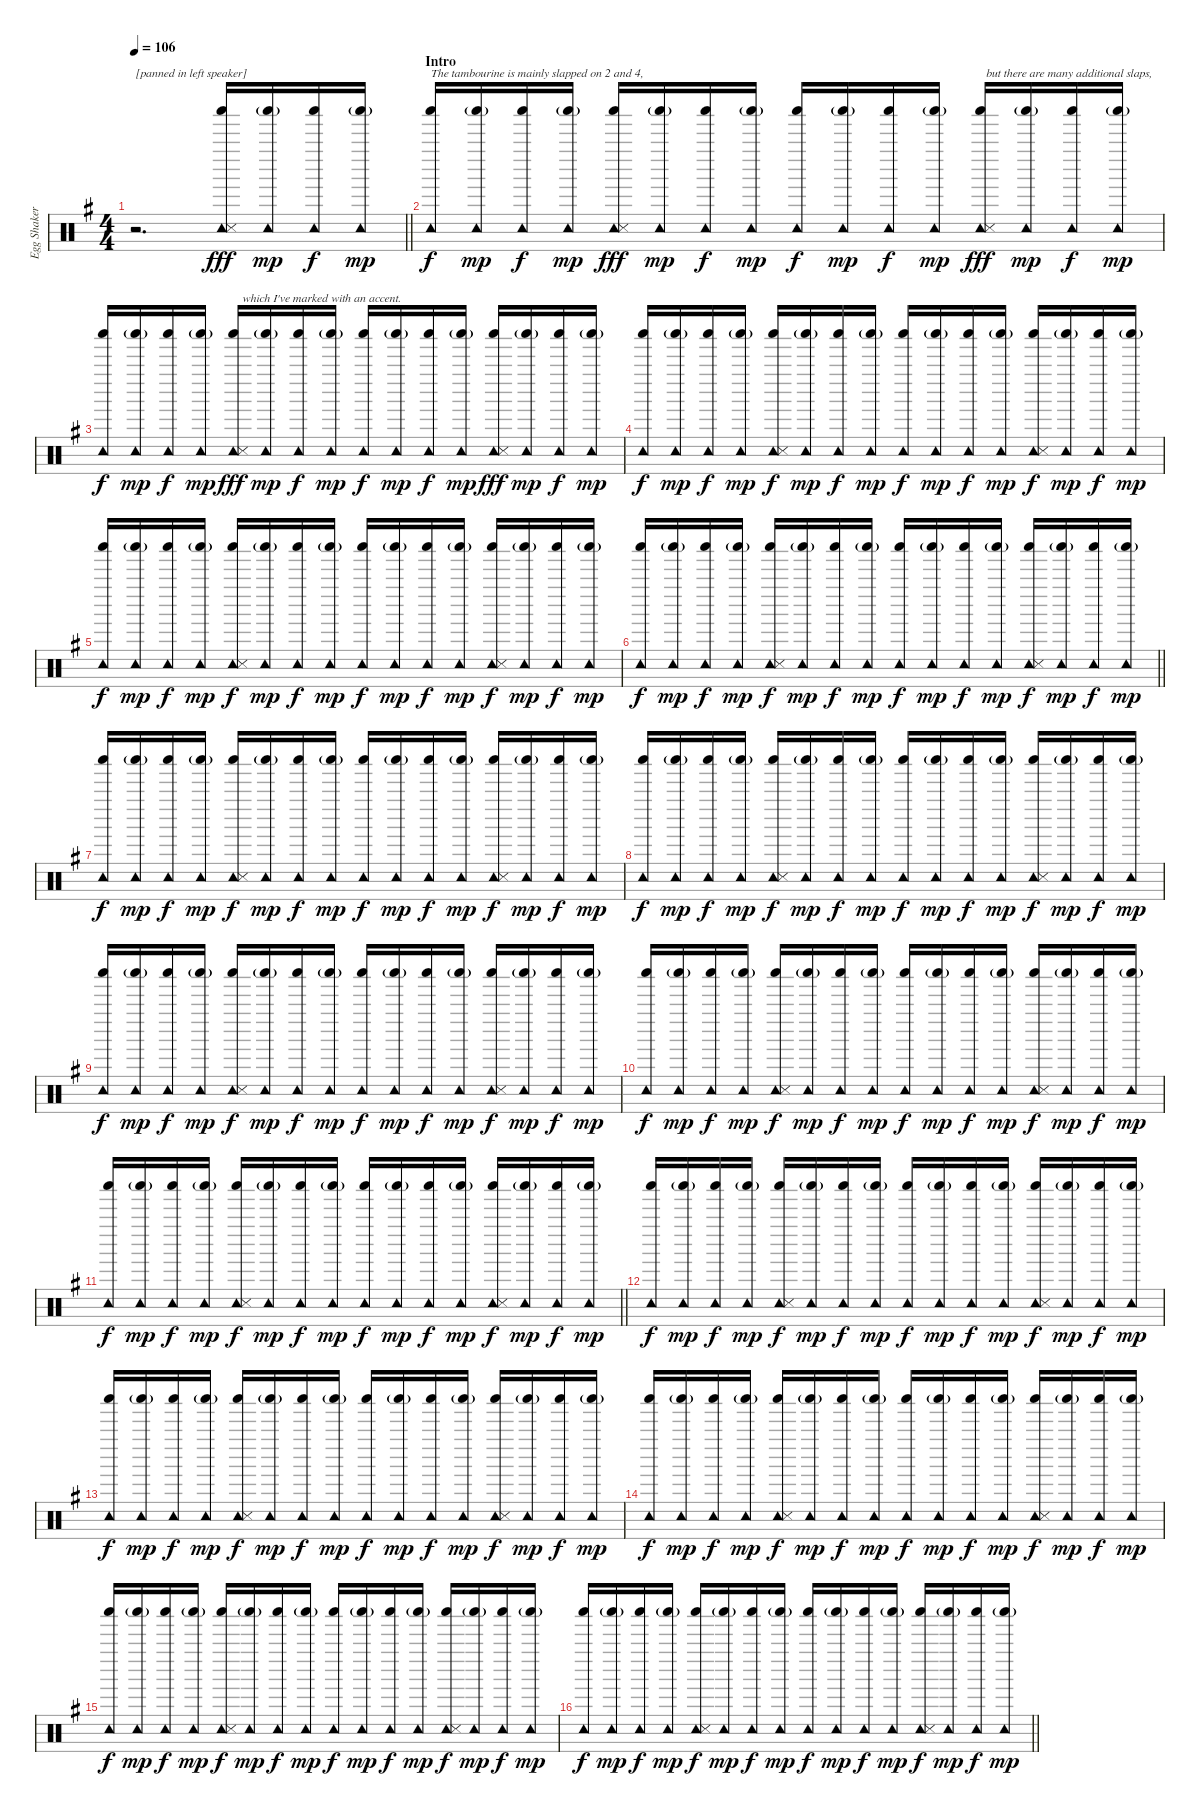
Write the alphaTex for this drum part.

\track ("Egg Shaker and Tambourine" "Egg Shaker") {instrument percussion}
\staff {score}
\articulation defaults
\ts (4 4)
\tempo 106
\clef neutral
\barLineRight lightlight
\ks eminor
r.2{d txt "[panned in left speaker]" dy fff} ("Tambourine (hit)" "Shaker (hit)" "Snare (side stick) 3").16{beam Up} ("Tambourine (hit)" "Shaker (hit)"{g}).16{dy mp beam Up} ("Tambourine (hit)" "Shaker (hit)").16{dy f beam Up} ("Tambourine (hit)" "Shaker (hit)"{g}).16{dy mp beam Up} |
\section ("" "Intro")
("Tambourine (hit)" "Shaker (hit)").16{txt "The tambourine is mainly slapped on 2 and 4," dy f beam Up} ("Tambourine (hit)" "Shaker (hit)"{g}).16{dy mp beam Up} ("Tambourine (hit)" "Shaker (hit)").16{dy f beam Up} ("Tambourine (hit)" "Shaker (hit)"{g}).16{dy mp beam Up} ("Tambourine (hit)" "Shaker (hit)" "Snare (side stick) 3").16{dy fff beam Up} ("Tambourine (hit)" "Shaker (hit)"{g}).16{dy mp beam Up} ("Tambourine (hit)" "Shaker (hit)").16{dy f beam Up} ("Tambourine (hit)" "Shaker (hit)"{g}).16{dy mp beam Up} ("Tambourine (hit)" "Shaker (hit)").16{dy f beam Up} ("Tambourine (hit)" "Shaker (hit)"{g}).16{dy mp beam Up} ("Tambourine (hit)" "Shaker (hit)").16{dy f beam Up} ("Tambourine (hit)" "Shaker (hit)"{g}).16{dy mp beam Up} ("Tambourine (hit)" "Shaker (hit)" "Snare (side stick) 3").16{txt "  but there are many additional slaps," dy fff beam Up} ("Tambourine (hit)" "Shaker (hit)"{g}).16{dy mp beam Up} ("Tambourine (hit)" "Shaker (hit)").16{dy f beam Up} ("Tambourine (hit)" "Shaker (hit)"{g}).16{dy mp beam Up} |
("Tambourine (hit)" "Shaker (hit)").16{dy f beam Up} ("Tambourine (hit)" "Shaker (hit)"{g}).16{dy mp beam Up} ("Tambourine (hit)" "Shaker (hit)").16{dy f beam Up} ("Tambourine (hit)" "Shaker (hit)"{g}).16{dy mp beam Up} ("Tambourine (hit)" "Shaker (hit)" "Snare (side stick) 3").16{txt "   which I've marked with an accent." dy fff beam Up} ("Tambourine (hit)" "Shaker (hit)"{g}).16{dy mp beam Up} ("Tambourine (hit)" "Shaker (hit)").16{dy f beam Up} ("Tambourine (hit)" "Shaker (hit)"{g}).16{dy mp beam Up} ("Tambourine (hit)" "Shaker (hit)").16{dy f beam Up} ("Tambourine (hit)" "Shaker (hit)"{g}).16{dy mp beam Up} ("Tambourine (hit)" "Shaker (hit)").16{dy f beam Up} ("Tambourine (hit)" "Shaker (hit)"{g}).16{dy mp beam Up} ("Tambourine (hit)" "Shaker (hit)" "Snare (side stick) 3").16{dy fff beam Up} ("Tambourine (hit)" "Shaker (hit)"{g}).16{dy mp beam Up} ("Tambourine (hit)" "Shaker (hit)").16{dy f beam Up} ("Tambourine (hit)" "Shaker (hit)"{g}).16{dy mp beam Up} |
("Tambourine (hit)" "Shaker (hit)").16{dy f beam Up} ("Tambourine (hit)" "Shaker (hit)"{g}).16{dy mp beam Up} ("Tambourine (hit)" "Shaker (hit)").16{dy f beam Up} ("Tambourine (hit)" "Shaker (hit)"{g}).16{dy mp beam Up} ("Tambourine (hit)" "Shaker (hit)" "Snare (side stick) 3").16{dy f beam Up} ("Tambourine (hit)" "Shaker (hit)"{g}).16{dy mp beam Up} ("Tambourine (hit)" "Shaker (hit)").16{dy f beam Up} ("Tambourine (hit)" "Shaker (hit)"{g}).16{dy mp beam Up} ("Tambourine (hit)" "Shaker (hit)").16{dy f beam Up} ("Tambourine (hit)" "Shaker (hit)"{g}).16{dy mp beam Up} ("Tambourine (hit)" "Shaker (hit)").16{dy f beam Up} ("Tambourine (hit)" "Shaker (hit)"{g}).16{dy mp beam Up} ("Tambourine (hit)" "Shaker (hit)" "Snare (side stick) 3").16{dy f beam Up} ("Tambourine (hit)" "Shaker (hit)"{g}).16{dy mp beam Up} ("Tambourine (hit)" "Shaker (hit)").16{dy f beam Up} ("Tambourine (hit)" "Shaker (hit)"{g}).16{dy mp beam Up} |
("Tambourine (hit)" "Shaker (hit)").16{dy f beam Up} ("Tambourine (hit)" "Shaker (hit)"{g}).16{dy mp beam Up} ("Tambourine (hit)" "Shaker (hit)").16{dy f beam Up} ("Tambourine (hit)" "Shaker (hit)"{g}).16{dy mp beam Up} ("Tambourine (hit)" "Shaker (hit)" "Snare (side stick) 3").16{dy f beam Up} ("Tambourine (hit)" "Shaker (hit)"{g}).16{dy mp beam Up} ("Tambourine (hit)" "Shaker (hit)").16{dy f beam Up} ("Tambourine (hit)" "Shaker (hit)"{g}).16{dy mp beam Up} ("Tambourine (hit)" "Shaker (hit)").16{dy f beam Up} ("Tambourine (hit)" "Shaker (hit)"{g}).16{dy mp beam Up} ("Tambourine (hit)" "Shaker (hit)").16{dy f beam Up} ("Tambourine (hit)" "Shaker (hit)"{g}).16{dy mp beam Up} ("Tambourine (hit)" "Shaker (hit)" "Snare (side stick) 3").16{dy f beam Up} ("Tambourine (hit)" "Shaker (hit)"{g}).16{dy mp beam Up} ("Tambourine (hit)" "Shaker (hit)").16{dy f beam Up} ("Tambourine (hit)" "Shaker (hit)"{g}).16{dy mp beam Up} |
\barLineRight lightlight
("Tambourine (hit)" "Shaker (hit)").16{dy f beam Up} ("Tambourine (hit)" "Shaker (hit)"{g}).16{dy mp beam Up} ("Tambourine (hit)" "Shaker (hit)").16{dy f beam Up} ("Tambourine (hit)" "Shaker (hit)"{g}).16{dy mp beam Up} ("Tambourine (hit)" "Shaker (hit)" "Snare (side stick) 3").16{dy f beam Up} ("Tambourine (hit)" "Shaker (hit)"{g}).16{dy mp beam Up} ("Tambourine (hit)" "Shaker (hit)").16{dy f beam Up} ("Tambourine (hit)" "Shaker (hit)"{g}).16{dy mp beam Up} ("Tambourine (hit)" "Shaker (hit)").16{dy f beam Up} ("Tambourine (hit)" "Shaker (hit)"{g}).16{dy mp beam Up} ("Tambourine (hit)" "Shaker (hit)").16{dy f beam Up} ("Tambourine (hit)" "Shaker (hit)"{g}).16{dy mp beam Up} ("Tambourine (hit)" "Shaker (hit)" "Snare (side stick) 3").16{dy f beam Up} ("Tambourine (hit)" "Shaker (hit)"{g}).16{dy mp beam Up} ("Tambourine (hit)" "Shaker (hit)").16{dy f beam Up} ("Tambourine (hit)" "Shaker (hit)"{g}).16{dy mp beam Up} |
("Tambourine (hit)" "Shaker (hit)").16{dy f beam Up} ("Tambourine (hit)" "Shaker (hit)"{g}).16{dy mp beam Up} ("Tambourine (hit)" "Shaker (hit)").16{dy f beam Up} ("Tambourine (hit)" "Shaker (hit)"{g}).16{dy mp beam Up} ("Tambourine (hit)" "Shaker (hit)" "Snare (side stick) 3").16{dy f beam Up} ("Tambourine (hit)" "Shaker (hit)"{g}).16{dy mp beam Up} ("Tambourine (hit)" "Shaker (hit)").16{dy f beam Up} ("Tambourine (hit)" "Shaker (hit)"{g}).16{dy mp beam Up} ("Tambourine (hit)" "Shaker (hit)").16{dy f beam Up} ("Tambourine (hit)" "Shaker (hit)"{g}).16{dy mp beam Up} ("Tambourine (hit)" "Shaker (hit)").16{dy f beam Up} ("Tambourine (hit)" "Shaker (hit)"{g}).16{dy mp beam Up} ("Tambourine (hit)" "Shaker (hit)" "Snare (side stick) 3").16{dy f beam Up} ("Tambourine (hit)" "Shaker (hit)"{g}).16{dy mp beam Up} ("Tambourine (hit)" "Shaker (hit)").16{dy f beam Up} ("Tambourine (hit)" "Shaker (hit)"{g}).16{dy mp beam Up} |
("Tambourine (hit)" "Shaker (hit)").16{dy f beam Up} ("Tambourine (hit)" "Shaker (hit)"{g}).16{dy mp beam Up} ("Tambourine (hit)" "Shaker (hit)").16{dy f beam Up} ("Tambourine (hit)" "Shaker (hit)"{g}).16{dy mp beam Up} ("Tambourine (hit)" "Shaker (hit)" "Snare (side stick) 3").16{dy f beam Up} ("Tambourine (hit)" "Shaker (hit)"{g}).16{dy mp beam Up} ("Tambourine (hit)" "Shaker (hit)").16{dy f beam Up} ("Tambourine (hit)" "Shaker (hit)"{g}).16{dy mp beam Up} ("Tambourine (hit)" "Shaker (hit)").16{dy f beam Up} ("Tambourine (hit)" "Shaker (hit)"{g}).16{dy mp beam Up} ("Tambourine (hit)" "Shaker (hit)").16{dy f beam Up} ("Tambourine (hit)" "Shaker (hit)"{g}).16{dy mp beam Up} ("Tambourine (hit)" "Shaker (hit)" "Snare (side stick) 3").16{dy f beam Up} ("Tambourine (hit)" "Shaker (hit)"{g}).16{dy mp beam Up} ("Tambourine (hit)" "Shaker (hit)").16{dy f beam Up} ("Tambourine (hit)" "Shaker (hit)"{g}).16{dy mp beam Up} |
("Tambourine (hit)" "Shaker (hit)").16{dy f beam Up} ("Tambourine (hit)" "Shaker (hit)"{g}).16{dy mp beam Up} ("Tambourine (hit)" "Shaker (hit)").16{dy f beam Up} ("Tambourine (hit)" "Shaker (hit)"{g}).16{dy mp beam Up} ("Tambourine (hit)" "Shaker (hit)" "Snare (side stick) 3").16{dy f beam Up} ("Tambourine (hit)" "Shaker (hit)"{g}).16{dy mp beam Up} ("Tambourine (hit)" "Shaker (hit)").16{dy f beam Up} ("Tambourine (hit)" "Shaker (hit)"{g}).16{dy mp beam Up} ("Tambourine (hit)" "Shaker (hit)").16{dy f beam Up} ("Tambourine (hit)" "Shaker (hit)"{g}).16{dy mp beam Up} ("Tambourine (hit)" "Shaker (hit)").16{dy f beam Up} ("Tambourine (hit)" "Shaker (hit)"{g}).16{dy mp beam Up} ("Tambourine (hit)" "Shaker (hit)" "Snare (side stick) 3").16{dy f beam Up} ("Tambourine (hit)" "Shaker (hit)"{g}).16{dy mp beam Up} ("Tambourine (hit)" "Shaker (hit)").16{dy f beam Up} ("Tambourine (hit)" "Shaker (hit)"{g}).16{dy mp beam Up} |
("Tambourine (hit)" "Shaker (hit)").16{dy f beam Up} ("Tambourine (hit)" "Shaker (hit)"{g}).16{dy mp beam Up} ("Tambourine (hit)" "Shaker (hit)").16{dy f beam Up} ("Tambourine (hit)" "Shaker (hit)"{g}).16{dy mp beam Up} ("Tambourine (hit)" "Shaker (hit)" "Snare (side stick) 3").16{dy f beam Up} ("Tambourine (hit)" "Shaker (hit)"{g}).16{dy mp beam Up} ("Tambourine (hit)" "Shaker (hit)").16{dy f beam Up} ("Tambourine (hit)" "Shaker (hit)"{g}).16{dy mp beam Up} ("Tambourine (hit)" "Shaker (hit)").16{dy f beam Up} ("Tambourine (hit)" "Shaker (hit)"{g}).16{dy mp beam Up} ("Tambourine (hit)" "Shaker (hit)").16{dy f beam Up} ("Tambourine (hit)" "Shaker (hit)"{g}).16{dy mp beam Up} ("Tambourine (hit)" "Shaker (hit)" "Snare (side stick) 3").16{dy f beam Up} ("Tambourine (hit)" "Shaker (hit)"{g}).16{dy mp beam Up} ("Tambourine (hit)" "Shaker (hit)").16{dy f beam Up} ("Tambourine (hit)" "Shaker (hit)"{g}).16{dy mp beam Up} |
\barLineRight lightlight
("Tambourine (hit)" "Shaker (hit)").16{dy f beam Up} ("Tambourine (hit)" "Shaker (hit)"{g}).16{dy mp beam Up} ("Tambourine (hit)" "Shaker (hit)").16{dy f beam Up} ("Tambourine (hit)" "Shaker (hit)"{g}).16{dy mp beam Up} ("Tambourine (hit)" "Shaker (hit)" "Snare (side stick) 3").16{dy f beam Up} ("Tambourine (hit)" "Shaker (hit)"{g}).16{dy mp beam Up} ("Tambourine (hit)" "Shaker (hit)").16{dy f beam Up} ("Tambourine (hit)" "Shaker (hit)"{g}).16{dy mp beam Up} ("Tambourine (hit)" "Shaker (hit)").16{dy f beam Up} ("Tambourine (hit)" "Shaker (hit)"{g}).16{dy mp beam Up} ("Tambourine (hit)" "Shaker (hit)").16{dy f beam Up} ("Tambourine (hit)" "Shaker (hit)"{g}).16{dy mp beam Up} ("Tambourine (hit)" "Shaker (hit)" "Snare (side stick) 3").16{dy f beam Up} ("Tambourine (hit)" "Shaker (hit)"{g}).16{dy mp beam Up} ("Tambourine (hit)" "Shaker (hit)").16{dy f beam Up} ("Tambourine (hit)" "Shaker (hit)"{g}).16{dy mp beam Up} |
("Tambourine (hit)" "Shaker (hit)").16{dy f beam Up} ("Tambourine (hit)" "Shaker (hit)"{g}).16{dy mp beam Up} ("Tambourine (hit)" "Shaker (hit)").16{dy f beam Up} ("Tambourine (hit)" "Shaker (hit)"{g}).16{dy mp beam Up} ("Tambourine (hit)" "Shaker (hit)" "Snare (side stick) 3").16{dy f beam Up} ("Tambourine (hit)" "Shaker (hit)"{g}).16{dy mp beam Up} ("Tambourine (hit)" "Shaker (hit)").16{dy f beam Up} ("Tambourine (hit)" "Shaker (hit)"{g}).16{dy mp beam Up} ("Tambourine (hit)" "Shaker (hit)").16{dy f beam Up} ("Tambourine (hit)" "Shaker (hit)"{g}).16{dy mp beam Up} ("Tambourine (hit)" "Shaker (hit)").16{dy f beam Up} ("Tambourine (hit)" "Shaker (hit)"{g}).16{dy mp beam Up} ("Tambourine (hit)" "Shaker (hit)" "Snare (side stick) 3").16{dy f beam Up} ("Tambourine (hit)" "Shaker (hit)"{g}).16{dy mp beam Up} ("Tambourine (hit)" "Shaker (hit)").16{dy f beam Up} ("Tambourine (hit)" "Shaker (hit)"{g}).16{dy mp beam Up} |
("Tambourine (hit)" "Shaker (hit)").16{dy f beam Up} ("Tambourine (hit)" "Shaker (hit)"{g}).16{dy mp beam Up} ("Tambourine (hit)" "Shaker (hit)").16{dy f beam Up} ("Tambourine (hit)" "Shaker (hit)"{g}).16{dy mp beam Up} ("Tambourine (hit)" "Shaker (hit)" "Snare (side stick) 3").16{dy f beam Up} ("Tambourine (hit)" "Shaker (hit)"{g}).16{dy mp beam Up} ("Tambourine (hit)" "Shaker (hit)").16{dy f beam Up} ("Tambourine (hit)" "Shaker (hit)"{g}).16{dy mp beam Up} ("Tambourine (hit)" "Shaker (hit)").16{dy f beam Up} ("Tambourine (hit)" "Shaker (hit)"{g}).16{dy mp beam Up} ("Tambourine (hit)" "Shaker (hit)").16{dy f beam Up} ("Tambourine (hit)" "Shaker (hit)"{g}).16{dy mp beam Up} ("Tambourine (hit)" "Shaker (hit)" "Snare (side stick) 3").16{dy f beam Up} ("Tambourine (hit)" "Shaker (hit)"{g}).16{dy mp beam Up} ("Tambourine (hit)" "Shaker (hit)").16{dy f beam Up} ("Tambourine (hit)" "Shaker (hit)"{g}).16{dy mp beam Up} |
("Tambourine (hit)" "Shaker (hit)").16{dy f beam Up} ("Tambourine (hit)" "Shaker (hit)"{g}).16{dy mp beam Up} ("Tambourine (hit)" "Shaker (hit)").16{dy f beam Up} ("Tambourine (hit)" "Shaker (hit)"{g}).16{dy mp beam Up} ("Tambourine (hit)" "Shaker (hit)" "Snare (side stick) 3").16{dy f beam Up} ("Tambourine (hit)" "Shaker (hit)"{g}).16{dy mp beam Up} ("Tambourine (hit)" "Shaker (hit)").16{dy f beam Up} ("Tambourine (hit)" "Shaker (hit)"{g}).16{dy mp beam Up} ("Tambourine (hit)" "Shaker (hit)").16{dy f beam Up} ("Tambourine (hit)" "Shaker (hit)"{g}).16{dy mp beam Up} ("Tambourine (hit)" "Shaker (hit)").16{dy f beam Up} ("Tambourine (hit)" "Shaker (hit)"{g}).16{dy mp beam Up} ("Tambourine (hit)" "Shaker (hit)" "Snare (side stick) 3").16{dy f beam Up} ("Tambourine (hit)" "Shaker (hit)"{g}).16{dy mp beam Up} ("Tambourine (hit)" "Shaker (hit)").16{dy f beam Up} ("Tambourine (hit)" "Shaker (hit)"{g}).16{dy mp beam Up} |
("Tambourine (hit)" "Shaker (hit)").16{dy f beam Up} ("Tambourine (hit)" "Shaker (hit)"{g}).16{dy mp beam Up} ("Tambourine (hit)" "Shaker (hit)").16{dy f beam Up} ("Tambourine (hit)" "Shaker (hit)"{g}).16{dy mp beam Up} ("Tambourine (hit)" "Shaker (hit)" "Snare (side stick) 3").16{dy f beam Up} ("Tambourine (hit)" "Shaker (hit)"{g}).16{dy mp beam Up} ("Tambourine (hit)" "Shaker (hit)").16{dy f beam Up} ("Tambourine (hit)" "Shaker (hit)"{g}).16{dy mp beam Up} ("Tambourine (hit)" "Shaker (hit)").16{dy f beam Up} ("Tambourine (hit)" "Shaker (hit)"{g}).16{dy mp beam Up} ("Tambourine (hit)" "Shaker (hit)").16{dy f beam Up} ("Tambourine (hit)" "Shaker (hit)"{g}).16{dy mp beam Up} ("Tambourine (hit)" "Shaker (hit)" "Snare (side stick) 3").16{dy f beam Up} ("Tambourine (hit)" "Shaker (hit)"{g}).16{dy mp beam Up} ("Tambourine (hit)" "Shaker (hit)").16{dy f beam Up} ("Tambourine (hit)" "Shaker (hit)"{g}).16{dy mp beam Up} |
\barLineRight lightlight
("Tambourine (hit)" "Shaker (hit)").16{dy f beam Up} ("Tambourine (hit)" "Shaker (hit)"{g}).16{dy mp beam Up} ("Tambourine (hit)" "Shaker (hit)").16{dy f beam Up} ("Tambourine (hit)" "Shaker (hit)"{g}).16{dy mp beam Up} ("Tambourine (hit)" "Shaker (hit)" "Snare (side stick) 3").16{dy f beam Up} ("Tambourine (hit)" "Shaker (hit)"{g}).16{dy mp beam Up} ("Tambourine (hit)" "Shaker (hit)").16{dy f beam Up} ("Tambourine (hit)" "Shaker (hit)"{g}).16{dy mp beam Up} ("Tambourine (hit)" "Shaker (hit)").16{dy f beam Up} ("Tambourine (hit)" "Shaker (hit)"{g}).16{dy mp beam Up} ("Tambourine (hit)" "Shaker (hit)").16{dy f beam Up} ("Tambourine (hit)" "Shaker (hit)"{g}).16{dy mp beam Up} ("Tambourine (hit)" "Shaker (hit)" "Snare (side stick) 3").16{dy f beam Up} ("Tambourine (hit)" "Shaker (hit)"{g}).16{dy mp beam Up} ("Tambourine (hit)" "Shaker (hit)").16{dy f beam Up} ("Tambourine (hit)" "Shaker (hit)"{g}).16{dy mp beam Up}
